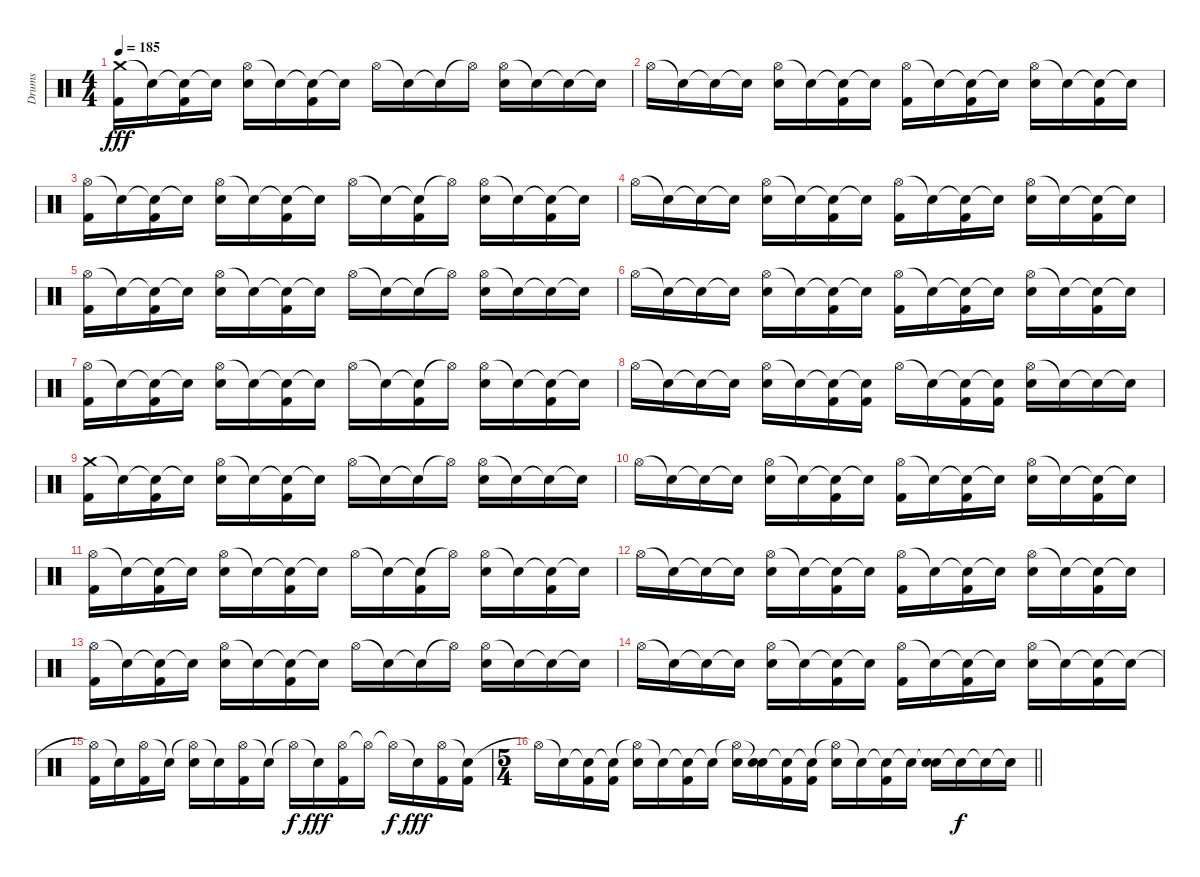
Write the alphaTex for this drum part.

\track ("Drums" "Drums") {instrument percussion}
\staff {score}
\articulation defaults
\ts (4 4)
\tempo 185
\clef neutral
\ks c
("Crash medium (hit)" "Kick (hit) 2").16{dy fff} "Snare (hit)"{t}.16 ("Snare (hit)"{t} "Kick (hit) 2").16 "Snare (hit)"{t}.16 ("Hi-Hat (open)" "Electric Snare (hit)").16 "Snare (hit)"{t}.16 ("Snare (hit)"{t} "Kick (hit) 2").16 "Snare (hit)"{t}.16 "Hi-Hat (open)".16 "Snare (hit)"{t}.16 "Snare (hit)"{t}.16 "Hi-Hat (open)"{t}.16 ("Hi-Hat (open)" "Electric Snare (hit)").16 "Snare (hit)"{t}.16 "Snare (hit)"{t}.16 "Snare (hit)"{t}.16 |
"Hi-Hat (open)".16 "Snare (hit)"{t}.16 "Snare (hit)"{t}.16 "Snare (hit)"{t}.16 ("Hi-Hat (open)" "Electric Snare (hit)").16 "Snare (hit)"{t}.16 ("Snare (hit)"{t} "Kick (hit) 2").16 "Snare (hit)"{t}.16 ("Hi-Hat (open)" "Kick (hit) 2").16 "Snare (hit)"{t}.16 ("Snare (hit)"{t} "Kick (hit) 2").16 "Snare (hit)"{t}.16 ("Hi-Hat (open)" "Electric Snare (hit)").16 "Snare (hit)"{t}.16 ("Snare (hit)"{t} "Kick (hit) 2").16 "Snare (hit)"{t}.16 |
("Hi-Hat (open)" "Kick (hit) 2").16 "Snare (hit)"{t}.16 ("Snare (hit)"{t} "Kick (hit) 2").16 "Snare (hit)"{t}.16 ("Hi-Hat (open)" "Electric Snare (hit)").16 "Snare (hit)"{t}.16 ("Snare (hit)"{t} "Kick (hit) 2").16 "Snare (hit)"{t}.16 "Hi-Hat (open)".16 "Snare (hit)"{t}.16 ("Snare (hit)"{t} "Kick (hit) 2").16 "Hi-Hat (open)"{t}.16 ("Hi-Hat (open)" "Electric Snare (hit)").16 "Snare (hit)"{t}.16 ("Snare (hit)"{t} "Kick (hit) 2").16 "Snare (hit)"{t}.16 |
"Hi-Hat (open)".16 "Snare (hit)"{t}.16 "Snare (hit)"{t}.16 "Snare (hit)"{t}.16 ("Hi-Hat (open)" "Electric Snare (hit)").16 "Snare (hit)"{t}.16 ("Snare (hit)"{t} "Kick (hit) 2").16 "Snare (hit)"{t}.16 ("Hi-Hat (open)" "Kick (hit) 2").16 "Snare (hit)"{t}.16 ("Snare (hit)"{t} "Kick (hit) 2").16 "Snare (hit)"{t}.16 ("Hi-Hat (open)" "Electric Snare (hit)").16 "Snare (hit)"{t}.16 ("Snare (hit)"{t} "Kick (hit) 2").16 "Snare (hit)"{t}.16 |
("Hi-Hat (open)" "Kick (hit) 2").16 "Snare (hit)"{t}.16 ("Snare (hit)"{t} "Kick (hit) 2").16 "Snare (hit)"{t}.16 ("Hi-Hat (open)" "Electric Snare (hit)").16 "Snare (hit)"{t}.16 ("Snare (hit)"{t} "Kick (hit) 2").16 "Snare (hit)"{t}.16 "Hi-Hat (open)".16 "Snare (hit)"{t}.16 "Snare (hit)"{t}.16 "Hi-Hat (open)"{t}.16 ("Hi-Hat (open)" "Electric Snare (hit)").16 "Snare (hit)"{t}.16 "Snare (hit)"{t}.16 "Snare (hit)"{t}.16 |
"Hi-Hat (open)".16 "Snare (hit)"{t}.16 "Snare (hit)"{t}.16 "Snare (hit)"{t}.16 ("Hi-Hat (open)" "Electric Snare (hit)").16 "Snare (hit)"{t}.16 ("Snare (hit)"{t} "Kick (hit) 2").16 "Snare (hit)"{t}.16 ("Hi-Hat (open)" "Kick (hit) 2").16 "Snare (hit)"{t}.16 ("Snare (hit)"{t} "Kick (hit) 2").16 "Snare (hit)"{t}.16 ("Hi-Hat (open)" "Electric Snare (hit)").16 "Snare (hit)"{t}.16 ("Snare (hit)"{t} "Kick (hit) 2").16 "Snare (hit)"{t}.16 |
("Hi-Hat (open)" "Kick (hit) 2").16 "Snare (hit)"{t}.16 ("Snare (hit)"{t} "Kick (hit) 2").16 "Snare (hit)"{t}.16 ("Hi-Hat (open)" "Electric Snare (hit)").16 "Snare (hit)"{t}.16 ("Snare (hit)"{t} "Kick (hit) 2").16 "Snare (hit)"{t}.16 "Hi-Hat (open)".16 "Snare (hit)"{t}.16 ("Snare (hit)"{t} "Kick (hit) 2").16 "Hi-Hat (open)"{t}.16 ("Hi-Hat (open)" "Electric Snare (hit)").16 "Snare (hit)"{t}.16 ("Snare (hit)"{t} "Kick (hit) 2").16 "Snare (hit)"{t}.16 |
"Hi-Hat (open)".16 "Snare (hit)"{t}.16 "Snare (hit)"{t}.16 "Snare (hit)"{t}.16 ("Hi-Hat (open)" "Electric Snare (hit)").16 "Snare (hit)"{t}.16 ("Snare (hit)"{t} "Kick (hit) 2").16 ("Snare (hit)"{t} "Kick (hit) 2").16 "Hi-Hat (open)".16 "Snare (hit)"{t}.16 ("Snare (hit)"{t} "Kick (hit) 2").16 ("Snare (hit)"{t} "Kick (hit) 2").16 ("Hi-Hat (open)" "Electric Snare (hit)").16 "Snare (hit)"{t}.16 "Snare (hit)"{t}.16 "Snare (hit)"{t}.16 |
("Crash medium (hit)" "Kick (hit) 2").16 "Snare (hit)"{t}.16 ("Snare (hit)"{t} "Kick (hit) 2").16 "Snare (hit)"{t}.16 ("Hi-Hat (open)" "Electric Snare (hit)").16 "Snare (hit)"{t}.16 ("Snare (hit)"{t} "Kick (hit) 2").16 "Snare (hit)"{t}.16 "Hi-Hat (open)".16 "Snare (hit)"{t}.16 "Snare (hit)"{t}.16 "Hi-Hat (open)"{t}.16 ("Hi-Hat (open)" "Electric Snare (hit)").16 "Snare (hit)"{t}.16 "Snare (hit)"{t}.16 "Snare (hit)"{t}.16 |
"Hi-Hat (open)".16 "Snare (hit)"{t}.16 "Snare (hit)"{t}.16 "Snare (hit)"{t}.16 ("Hi-Hat (open)" "Electric Snare (hit)").16 "Snare (hit)"{t}.16 ("Snare (hit)"{t} "Kick (hit) 2").16 "Snare (hit)"{t}.16 ("Hi-Hat (open)" "Kick (hit) 2").16 "Snare (hit)"{t}.16 ("Snare (hit)"{t} "Kick (hit) 2").16 "Snare (hit)"{t}.16 ("Hi-Hat (open)" "Electric Snare (hit)").16 "Snare (hit)"{t}.16 ("Snare (hit)"{t} "Kick (hit) 2").16 "Snare (hit)"{t}.16 |
("Hi-Hat (open)" "Kick (hit) 2").16 "Snare (hit)"{t}.16 ("Snare (hit)"{t} "Kick (hit) 2").16 "Snare (hit)"{t}.16 ("Hi-Hat (open)" "Electric Snare (hit)").16 "Snare (hit)"{t}.16 ("Snare (hit)"{t} "Kick (hit) 2").16 "Snare (hit)"{t}.16 "Hi-Hat (open)".16 "Snare (hit)"{t}.16 ("Snare (hit)"{t} "Kick (hit) 2").16 "Hi-Hat (open)"{t}.16 ("Hi-Hat (open)" "Electric Snare (hit)").16 "Snare (hit)"{t}.16 ("Snare (hit)"{t} "Kick (hit) 2").16 "Snare (hit)"{t}.16 |
"Hi-Hat (open)".16 "Snare (hit)"{t}.16 "Snare (hit)"{t}.16 "Snare (hit)"{t}.16 ("Hi-Hat (open)" "Electric Snare (hit)").16 "Snare (hit)"{t}.16 ("Snare (hit)"{t} "Kick (hit) 2").16 "Snare (hit)"{t}.16 ("Hi-Hat (open)" "Kick (hit) 2").16 "Snare (hit)"{t}.16 ("Snare (hit)"{t} "Kick (hit) 2").16 "Snare (hit)"{t}.16 ("Hi-Hat (open)" "Electric Snare (hit)").16 "Snare (hit)"{t}.16 ("Snare (hit)"{t} "Kick (hit) 2").16 "Snare (hit)"{t}.16 |
("Hi-Hat (open)" "Kick (hit) 2").16 "Snare (hit)"{t}.16 ("Snare (hit)"{t} "Kick (hit) 2").16 "Snare (hit)"{t}.16 ("Hi-Hat (open)" "Electric Snare (hit)").16 "Snare (hit)"{t}.16 ("Snare (hit)"{t} "Kick (hit) 2").16 "Snare (hit)"{t}.16 "Hi-Hat (open)".16 "Snare (hit)"{t}.16 "Snare (hit)"{t}.16 "Hi-Hat (open)"{t}.16 ("Hi-Hat (open)" "Electric Snare (hit)").16 "Snare (hit)"{t}.16 "Snare (hit)"{t}.16 "Snare (hit)"{t}.16 |
"Hi-Hat (open)".16 "Snare (hit)"{t}.16 "Snare (hit)"{t}.16 "Snare (hit)"{t}.16 ("Hi-Hat (open)" "Electric Snare (hit)").16 "Snare (hit)"{t}.16 ("Snare (hit)"{t} "Kick (hit) 2").16 "Snare (hit)"{t}.16 ("Hi-Hat (open)" "Kick (hit) 2").16 "Snare (hit)"{t}.16 ("Snare (hit)"{t} "Kick (hit) 2").16 "Snare (hit)"{t}.16 ("Hi-Hat (open)" "Electric Snare (hit)").16 "Snare (hit)"{t}.16 ("Snare (hit)"{t} "Kick (hit) 2").16 "Snare (hit)"{t}.16 |
("Hi-Hat (open)"{t} "Kick (hit) 2").16 "Snare (hit)"{t}.16 ("Hi-Hat (open)" "Kick (hit) 2").16 "Snare (hit)"{t}.16 ("Hi-Hat (open)"{t} "Electric Snare (hit)").16 "Snare (hit)"{t}.16 ("Hi-Hat (open)" "Kick (hit) 2").16 "Snare (hit)"{t}.16 "Hi-Hat (open)"{t}.16{dy f} "Snare (hit)"{t}.16{dy fff} ("Hi-Hat (open)" "Kick (hit) 2").16 "Hi-Hat (open)"{t}.16 "Hi-Hat (open)"{t}.16{dy f} "Snare (hit)"{t}.16{dy fff} ("Hi-Hat (open)" "Kick (hit) 2").16 ("Snare (hit)"{t} "Kick (hit) 2").16 |
\ts (5 4)
\barLineRight lightlight "Hi-Hat (open)"{t}.16 "Snare (hit)"{t}.16
("Snare (hit)"{t} "Kick (hit) 2").16 ("Snare (hit)"{t} "Kick (hit) 2").16 ("Hi-Hat (open)"{t} "Electric Snare (hit)").16 "Snare (hit)"{t}.16 ("Snare (hit)"{t} "Kick (hit) 2").16 "Snare (hit)"{t}.16 ("Hi-Hat (open)"{t} "Electric Snare (hit)").16 ("Snare (hit)"{t} "Electric Snare (hit)").16 ("Snare (hit)"{t} "Kick (hit) 2").16 ("Snare (hit)"{t} "Kick (hit) 2").16 ("Hi-Hat (open)"{t} "Electric Snare (hit)").16 "Snare (hit)"{t}.16 ("Snare (hit)"{t} "Kick (hit) 2").16 "Snare (hit)"{t}.16 ("Snare (hit)"{t} "Electric Snare (hit)").16 "Snare (hit)"{t}.16{dy f} "Snare (hit)"{t}.16 "Snare (hit)"{t}.16
